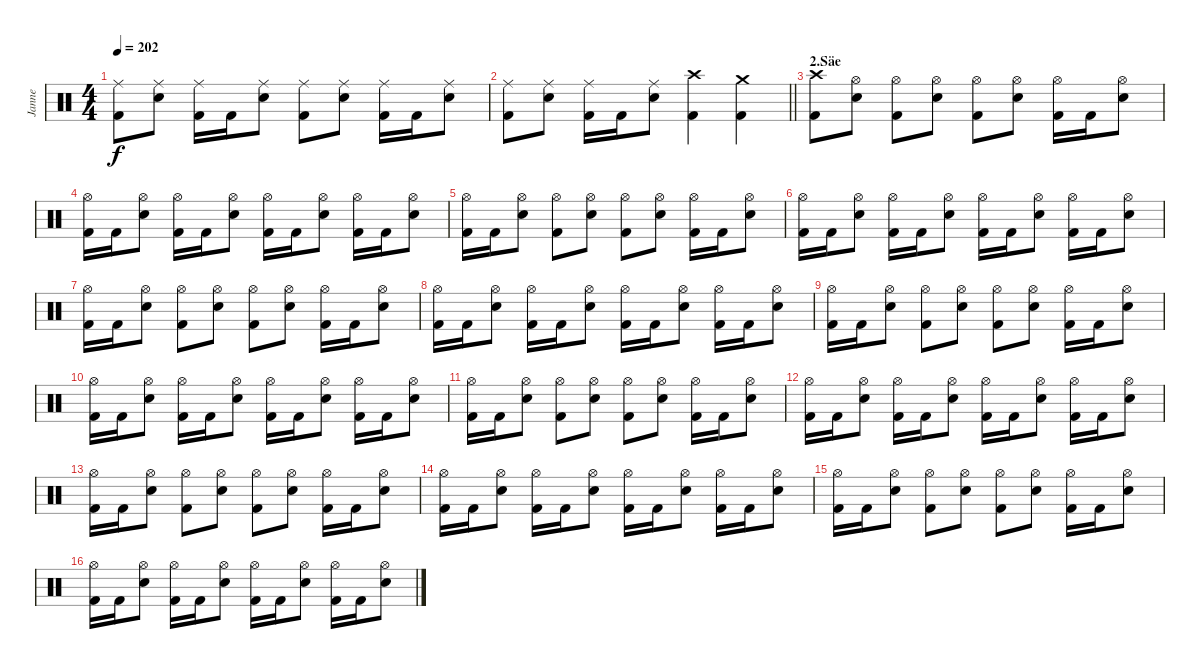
\track ("Janne" "Janne") {instrument percussion}
\staff {score}
\articulation defaults
\ts (4 4)
\tempo 202
\clef neutral
\ks c
("Ride (middle)" "Kick (hit) 2").8{dy f} ("Ride (middle)" "Electric Snare (hit)").8 ("Ride (middle)" "Kick (hit) 2").16 "Kick (hit) 2".16 ("Ride (middle)" "Electric Snare (hit)").8 ("Ride (middle)" "Kick (hit) 2").8 ("Ride (middle)" "Electric Snare (hit)").8 ("Ride (middle)" "Kick (hit) 2").16 "Kick (hit) 2".16 ("Ride (middle)" "Electric Snare (hit)").8 |
\barLineRight lightlight
("Ride (middle)" "Kick (hit) 2").8 ("Ride (middle)" "Electric Snare (hit)").8 ("Ride (middle)" "Kick (hit) 2").16 "Kick (hit) 2".16 ("Ride (middle)" "Electric Snare (hit)").8 ("Crash high (hit)" "Kick (hit) 2").4 ("Crash medium (hit)" "Kick (hit) 2").4 |
\section ("" "2.Säe")
("Crash high (hit)" "Kick (hit) 2").8 ("Hi-Hat (open)" "Electric Snare (hit)").8 ("Hi-Hat (open)" "Kick (hit) 2").8 ("Hi-Hat (open)" "Electric Snare (hit)").8 ("Hi-Hat (open)" "Kick (hit) 2").8 ("Hi-Hat (open)" "Electric Snare (hit)").8 ("Hi-Hat (open)" "Kick (hit) 2").16 "Kick (hit) 2".16 ("Hi-Hat (open)" "Electric Snare (hit)").8 |
("Hi-Hat (open)" "Kick (hit) 2").16 "Kick (hit) 2".16 ("Hi-Hat (open)" "Electric Snare (hit)").8 ("Hi-Hat (open)" "Kick (hit) 2").16 "Kick (hit) 2".16 ("Hi-Hat (open)" "Electric Snare (hit)").8 ("Hi-Hat (open)" "Kick (hit) 2").16 "Kick (hit) 2".16 ("Hi-Hat (open)" "Electric Snare (hit)").8 ("Hi-Hat (open)" "Kick (hit) 2").16 "Kick (hit) 2".16 ("Hi-Hat (open)" "Electric Snare (hit)").8 |
("Hi-Hat (open)" "Kick (hit) 2").16 "Kick (hit) 2".16 ("Hi-Hat (open)" "Electric Snare (hit)").8 ("Hi-Hat (open)" "Kick (hit) 2").8 ("Hi-Hat (open)" "Electric Snare (hit)").8 ("Hi-Hat (open)" "Kick (hit) 2").8 ("Hi-Hat (open)" "Electric Snare (hit)").8 ("Hi-Hat (open)" "Kick (hit) 2").16 "Kick (hit) 2".16 ("Hi-Hat (open)" "Electric Snare (hit)").8 |
("Hi-Hat (open)" "Kick (hit) 2").16 "Kick (hit) 2".16 ("Hi-Hat (open)" "Electric Snare (hit)").8 ("Hi-Hat (open)" "Kick (hit) 2").16 "Kick (hit) 2".16 ("Hi-Hat (open)" "Electric Snare (hit)").8 ("Hi-Hat (open)" "Kick (hit) 2").16 "Kick (hit) 2".16 ("Hi-Hat (open)" "Electric Snare (hit)").8 ("Hi-Hat (open)" "Kick (hit) 2").16 "Kick (hit) 2".16 ("Hi-Hat (open)" "Electric Snare (hit)").8 |
("Hi-Hat (open)" "Kick (hit) 2").16 "Kick (hit) 2".16 ("Hi-Hat (open)" "Electric Snare (hit)").8 ("Hi-Hat (open)" "Kick (hit) 2").8 ("Hi-Hat (open)" "Electric Snare (hit)").8 ("Hi-Hat (open)" "Kick (hit) 2").8 ("Hi-Hat (open)" "Electric Snare (hit)").8 ("Hi-Hat (open)" "Kick (hit) 2").16 "Kick (hit) 2".16 ("Hi-Hat (open)" "Electric Snare (hit)").8 |
("Hi-Hat (open)" "Kick (hit) 2").16 "Kick (hit) 2".16 ("Hi-Hat (open)" "Electric Snare (hit)").8 ("Hi-Hat (open)" "Kick (hit) 2").16 "Kick (hit) 2".16 ("Hi-Hat (open)" "Electric Snare (hit)").8 ("Hi-Hat (open)" "Kick (hit) 2").16 "Kick (hit) 2".16 ("Hi-Hat (open)" "Electric Snare (hit)").8 ("Hi-Hat (open)" "Kick (hit) 2").16 "Kick (hit) 2".16 ("Hi-Hat (open)" "Electric Snare (hit)").8 |
("Hi-Hat (open)" "Kick (hit) 2").16 "Kick (hit) 2".16 ("Hi-Hat (open)" "Electric Snare (hit)").8 ("Hi-Hat (open)" "Kick (hit) 2").8 ("Hi-Hat (open)" "Electric Snare (hit)").8 ("Hi-Hat (open)" "Kick (hit) 2").8 ("Hi-Hat (open)" "Electric Snare (hit)").8 ("Hi-Hat (open)" "Kick (hit) 2").16 "Kick (hit) 2".16 ("Hi-Hat (open)" "Electric Snare (hit)").8 |
("Hi-Hat (open)" "Kick (hit) 2").16 "Kick (hit) 2".16 ("Hi-Hat (open)" "Electric Snare (hit)").8 ("Hi-Hat (open)" "Kick (hit) 2").16 "Kick (hit) 2".16 ("Hi-Hat (open)" "Electric Snare (hit)").8 ("Hi-Hat (open)" "Kick (hit) 2").16 "Kick (hit) 2".16 ("Hi-Hat (open)" "Electric Snare (hit)").8 ("Hi-Hat (open)" "Kick (hit) 2").16 "Kick (hit) 2".16 ("Hi-Hat (open)" "Electric Snare (hit)").8 |
("Hi-Hat (open)" "Kick (hit) 2").16 "Kick (hit) 2".16 ("Hi-Hat (open)" "Electric Snare (hit)").8 ("Hi-Hat (open)" "Kick (hit) 2").8 ("Hi-Hat (open)" "Electric Snare (hit)").8 ("Hi-Hat (open)" "Kick (hit) 2").8 ("Hi-Hat (open)" "Electric Snare (hit)").8 ("Hi-Hat (open)" "Kick (hit) 2").16 "Kick (hit) 2".16 ("Hi-Hat (open)" "Electric Snare (hit)").8 |
("Hi-Hat (open)" "Kick (hit) 2").16 "Kick (hit) 2".16 ("Hi-Hat (open)" "Electric Snare (hit)").8 ("Hi-Hat (open)" "Kick (hit) 2").16 "Kick (hit) 2".16 ("Hi-Hat (open)" "Electric Snare (hit)").8 ("Hi-Hat (open)" "Kick (hit) 2").16 "Kick (hit) 2".16 ("Hi-Hat (open)" "Electric Snare (hit)").8 ("Hi-Hat (open)" "Kick (hit) 2").16 "Kick (hit) 2".16 ("Hi-Hat (open)" "Electric Snare (hit)").8 |
("Hi-Hat (open)" "Kick (hit) 2").16 "Kick (hit) 2".16 ("Hi-Hat (open)" "Electric Snare (hit)").8 ("Hi-Hat (open)" "Kick (hit) 2").8 ("Hi-Hat (open)" "Electric Snare (hit)").8 ("Hi-Hat (open)" "Kick (hit) 2").8 ("Hi-Hat (open)" "Electric Snare (hit)").8 ("Hi-Hat (open)" "Kick (hit) 2").16 "Kick (hit) 2".16 ("Hi-Hat (open)" "Electric Snare (hit)").8 |
("Hi-Hat (open)" "Kick (hit) 2").16 "Kick (hit) 2".16 ("Hi-Hat (open)" "Electric Snare (hit)").8 ("Hi-Hat (open)" "Kick (hit) 2").16 "Kick (hit) 2".16 ("Hi-Hat (open)" "Electric Snare (hit)").8 ("Hi-Hat (open)" "Kick (hit) 2").16 "Kick (hit) 2".16 ("Hi-Hat (open)" "Electric Snare (hit)").8 ("Hi-Hat (open)" "Kick (hit) 2").16 "Kick (hit) 2".16 ("Hi-Hat (open)" "Electric Snare (hit)").8 |
("Hi-Hat (open)" "Kick (hit) 2").16 "Kick (hit) 2".16 ("Hi-Hat (open)" "Electric Snare (hit)").8 ("Hi-Hat (open)" "Kick (hit) 2").8 ("Hi-Hat (open)" "Electric Snare (hit)").8 ("Hi-Hat (open)" "Kick (hit) 2").8 ("Hi-Hat (open)" "Electric Snare (hit)").8 ("Hi-Hat (open)" "Kick (hit) 2").16 "Kick (hit) 2".16 ("Hi-Hat (open)" "Electric Snare (hit)").8 |
("Hi-Hat (open)" "Kick (hit) 2").16 "Kick (hit) 2".16 ("Hi-Hat (open)" "Electric Snare (hit)").8 ("Hi-Hat (open)" "Kick (hit) 2").16 "Kick (hit) 2".16 ("Hi-Hat (open)" "Electric Snare (hit)").8 ("Hi-Hat (open)" "Kick (hit) 2").16 "Kick (hit) 2".16 ("Hi-Hat (open)" "Electric Snare (hit)").8 ("Hi-Hat (open)" "Kick (hit) 2").16 "Kick (hit) 2".16 ("Hi-Hat (open)" "Electric Snare (hit)").8
